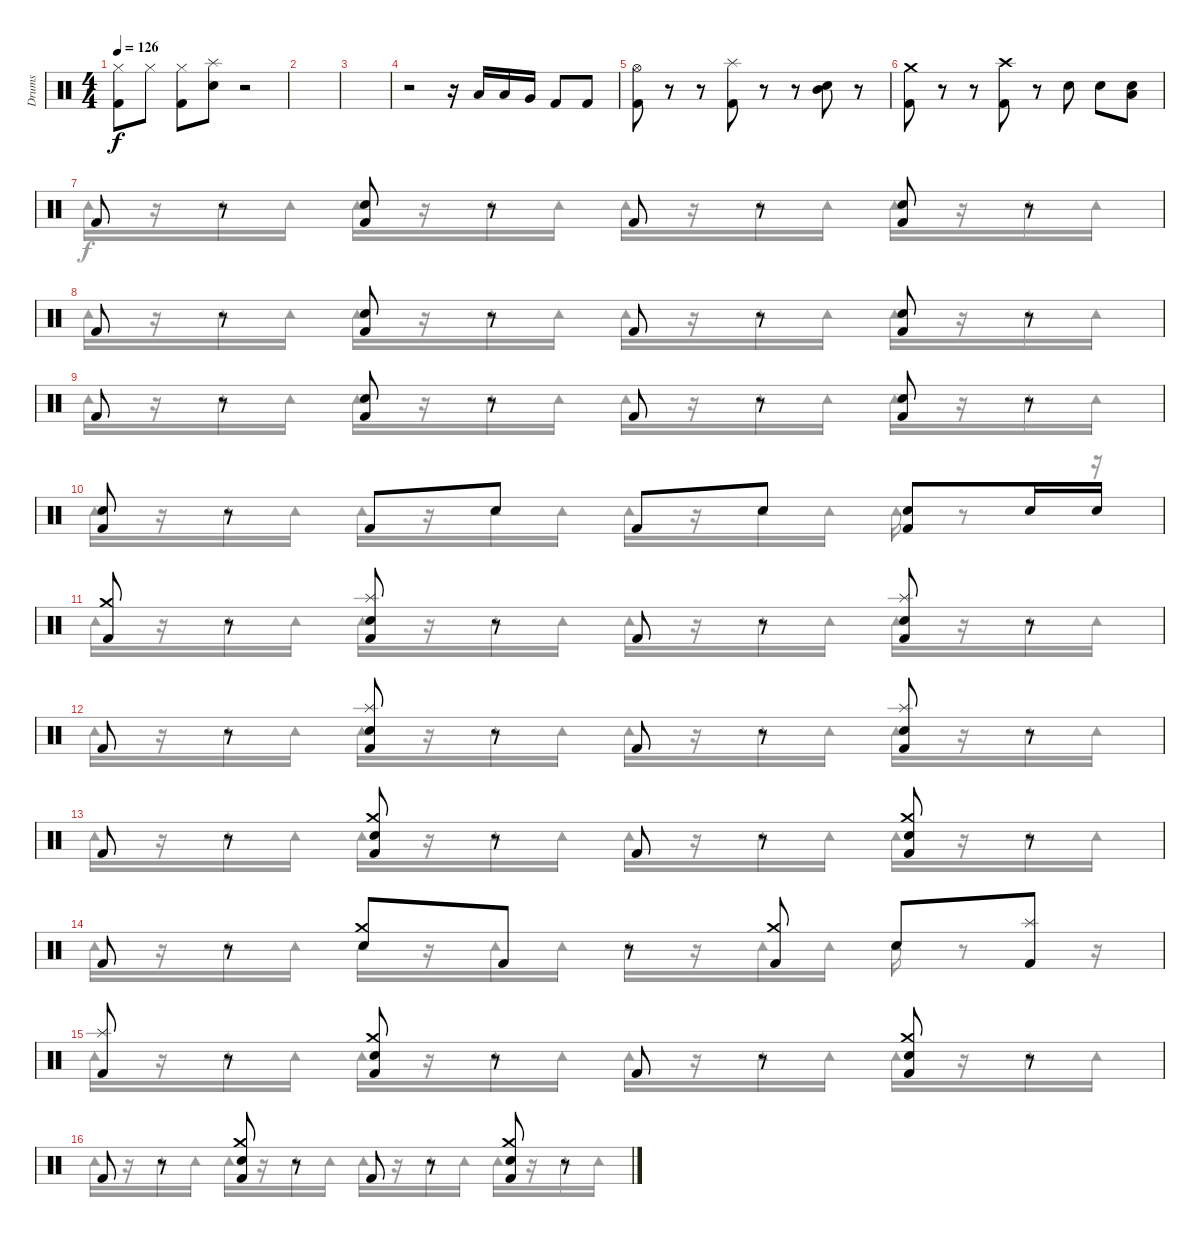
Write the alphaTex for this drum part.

\track ("Drums" "Drums") {instrument percussion}
\staff {score}
\articulation defaults
\voice
\ts (4 4)
\tempo 126
\clef neutral
\ks c
("Hi-Hat (closed)" "Kick (hit) 2").8{dy f} "Hi-Hat (closed)".8 ("Hi-Hat (closed)" "Kick (hit) 2").8 ("Splash (hit)" "Electric Snare (hit)").8 r.2 |
|
|
r.2 r.16 "Low Tom (hit)".16 "Low Tom (hit)".16 "Very Low Tom (hit)".16 "Kick (hit) 2".8 "Kick (hit) 2".8 |
("Hi-Hat (open)" "Kick (hit) 2").8 r.8 r.8 ("Splash (hit)" "Kick (hit) 2").8 r.8 r.8 ("Electric Snare (hit)" "Mid Tom (hit)").8 r.8 |
("Crash medium (hit)" "Kick (hit) 2").8 r.8 r.8 ("Crash high (hit)" "Kick (hit) 2").8 r.8 "Electric Snare (hit)".8 "Electric Snare (hit)".8 ("Electric Snare (hit)" "Low Tom (hit)").8 |
"Kick (hit) 2".8 r.8 ("Electric Snare (hit)" "Kick (hit) 2").8 r.8 "Kick (hit) 2".8 r.8 ("Electric Snare (hit)" "Kick (hit) 2").8 r.8 |
"Kick (hit) 2".8 r.8 ("Electric Snare (hit)" "Kick (hit) 2").8 r.8 "Kick (hit) 2".8 r.8 ("Electric Snare (hit)" "Kick (hit) 2").8 r.8 |
"Kick (hit) 2".8 r.8 ("Electric Snare (hit)" "Kick (hit) 2").8 r.8 "Kick (hit) 2".8 r.8 ("Electric Snare (hit)" "Kick (hit) 2").8 r.8 |
("Electric Snare (hit)" "Kick (hit) 2").8 r.8 "Kick (hit) 2".8 "Electric Snare (hit)".8 "Kick (hit) 2".8 "Electric Snare (hit)".8 ("Electric Snare (hit)" "Kick (hit) 2").8 "Electric Snare (hit)".16 "Electric Snare (hit)".16 |
("Crash medium (hit)" "Kick (hit) 2").8 r.8 ("Splash (hit)" "Electric Snare (hit)" "Kick (hit) 2").8 r.8 "Kick (hit) 2".8 r.8 ("Splash (hit)" "Electric Snare (hit)" "Kick (hit) 2").8 r.8 |
"Kick (hit) 2".8 r.8 ("Splash (hit)" "Electric Snare (hit)" "Kick (hit) 2").8 r.8 "Kick (hit) 2".8 r.8 ("Splash (hit)" "Electric Snare (hit)" "Kick (hit) 2").8 r.8 |
"Kick (hit) 2".8 r.8 ("Crash medium (hit)" "Electric Snare (hit)" "Kick (hit) 2").8 r.8 "Kick (hit) 2".8 r.8 ("Crash medium (hit)" "Electric Snare (hit)" "Kick (hit) 2").8 r.8 |
"Kick (hit) 2".8 r.8 ("Crash medium (hit)" "Electric Snare (hit)").8 "Kick (hit) 2".8 r.8 ("Crash medium (hit)" "Kick (hit) 2").8 "Electric Snare (hit)".8 ("Splash (hit)" "Kick (hit) 2").8 |
("Splash (hit)" "Kick (hit) 2").8 r.8 ("Crash medium (hit)" "Electric Snare (hit)" "Kick (hit) 2").8 r.8 "Kick (hit) 2".8 r.8 ("Crash medium (hit)" "Electric Snare (hit)" "Kick (hit) 2").8 r.8 |
"Kick (hit) 2".8 r.8 ("Crash medium (hit)" "Electric Snare (hit)" "Kick (hit) 2").8 r.8 "Kick (hit) 2".8 r.8 ("Crash medium (hit)" "Electric Snare (hit)" "Kick (hit) 2").8 r.8
\voice
\clef neutral
\ottava regular
\simile none
\ks c
|
|
|
|
|
|
"Tambourine (hit)".16 r.16 "Tambourine (hit)".16 "Tambourine (hit)".16 "Tambourine (hit)".16 r.16 "Tambourine (hit)".16 "Tambourine (hit)".16 "Tambourine (hit)".16 r.16 "Tambourine (hit)".16 "Tambourine (hit)".16 "Tambourine (hit)".16 r.16 "Tambourine (hit)".16 "Tambourine (hit)".16 |
"Tambourine (hit)".16 r.16 "Tambourine (hit)".16 "Tambourine (hit)".16 "Tambourine (hit)".16 r.16 "Tambourine (hit)".16 "Tambourine (hit)".16 "Tambourine (hit)".16 r.16 "Tambourine (hit)".16 "Tambourine (hit)".16 "Tambourine (hit)".16 r.16 "Tambourine (hit)".16 "Tambourine (hit)".16 |
"Tambourine (hit)".16 r.16 "Tambourine (hit)".16 "Tambourine (hit)".16 "Tambourine (hit)".16 r.16 "Tambourine (hit)".16 "Tambourine (hit)".16 "Tambourine (hit)".16 r.16 "Tambourine (hit)".16 "Tambourine (hit)".16 "Tambourine (hit)".16 r.16 "Tambourine (hit)".16 "Tambourine (hit)".16 |
"Tambourine (hit)".16 r.16 "Tambourine (hit)".16 "Tambourine (hit)".16 "Tambourine (hit)".16 r.16 "Tambourine (hit)".16 "Tambourine (hit)".16 "Tambourine (hit)".16 r.16 "Tambourine (hit)".16 "Tambourine (hit)".16 "Tambourine (hit)".16 r.8 r.16 |
"Tambourine (hit)".16 r.16 "Tambourine (hit)".16 "Tambourine (hit)".16 "Tambourine (hit)".16 r.16 "Tambourine (hit)".16 "Tambourine (hit)".16 "Tambourine (hit)".16 r.16 "Tambourine (hit)".16 "Tambourine (hit)".16 "Tambourine (hit)".16 r.16 "Tambourine (hit)".16 "Tambourine (hit)".16 |
"Tambourine (hit)".16 r.16 "Tambourine (hit)".16 "Tambourine (hit)".16 "Tambourine (hit)".16 r.16 "Tambourine (hit)".16 "Tambourine (hit)".16 "Tambourine (hit)".16 r.16 "Tambourine (hit)".16 "Tambourine (hit)".16 "Tambourine (hit)".16 r.16 "Tambourine (hit)".16 "Tambourine (hit)".16 |
"Tambourine (hit)".16 r.16 "Tambourine (hit)".16 "Tambourine (hit)".16 "Tambourine (hit)".16 r.16 "Tambourine (hit)".16 "Tambourine (hit)".16 "Tambourine (hit)".16 r.16 "Tambourine (hit)".16 "Tambourine (hit)".16 "Tambourine (hit)".16 r.16 "Tambourine (hit)".16 "Tambourine (hit)".16 |
"Tambourine (hit)".16 r.16 "Tambourine (hit)".16 "Tambourine (hit)".16 "Tambourine (hit)".16 r.16 "Tambourine (hit)".16 "Tambourine (hit)".16 "Tambourine (hit)".16 r.16 "Tambourine (hit)".16 "Tambourine (hit)".16 "Tambourine (hit)".16 r.8 r.16 |
"Tambourine (hit)".16 r.16 "Tambourine (hit)".16 "Tambourine (hit)".16 "Tambourine (hit)".16 r.16 "Tambourine (hit)".16 "Tambourine (hit)".16 "Tambourine (hit)".16 r.16 "Tambourine (hit)".16 "Tambourine (hit)".16 "Tambourine (hit)".16 r.16 "Tambourine (hit)".16 "Tambourine (hit)".16 |
"Tambourine (hit)".16 r.16 "Tambourine (hit)".16 "Tambourine (hit)".16 "Tambourine (hit)".16 r.16 "Tambourine (hit)".16 "Tambourine (hit)".16 "Tambourine (hit)".16 r.16 "Tambourine (hit)".16 "Tambourine (hit)".16 "Tambourine (hit)".16 r.16 "Tambourine (hit)".16 "Tambourine (hit)".16
